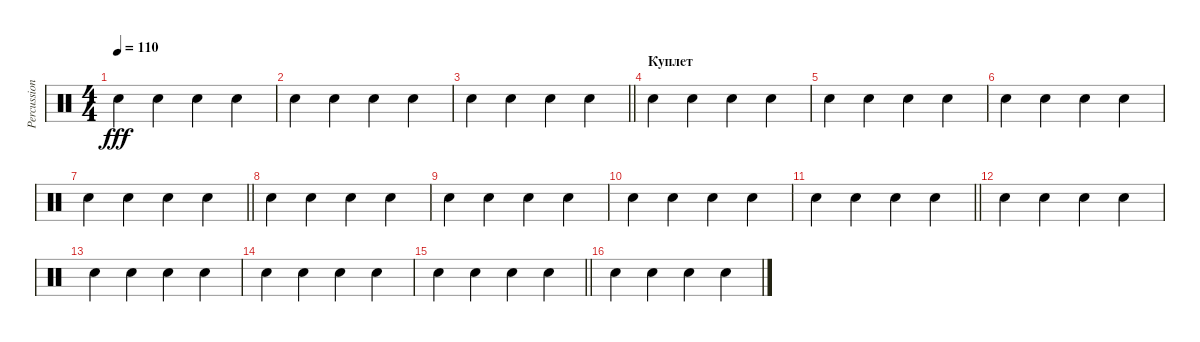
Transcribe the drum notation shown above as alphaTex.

\track ("Percussion" "Percussion") {mute instrument percussion}
\staff {score}
\articulation defaults
\ts (4 4)
\tempo 110
\clef neutral
\ks c "Snare (hit) 2".4{dy fff} "Snare (hit) 2".4 "Snare (hit) 2".4 "Snare (hit) 2".4
|
"Snare (hit) 2".4 "Snare (hit) 2".4 "Snare (hit) 2".4 "Snare (hit) 2".4 |
\barLineRight lightlight "Snare (hit) 2".4 "Snare (hit) 2".4 "Snare (hit) 2".4 "Snare (hit) 2".4
|
\section ("" "Куплет")
"Snare (hit) 2".4 "Snare (hit) 2".4 "Snare (hit) 2".4 "Snare (hit) 2".4 |
"Snare (hit) 2".4 "Snare (hit) 2".4 "Snare (hit) 2".4 "Snare (hit) 2".4 |
"Snare (hit) 2".4 "Snare (hit) 2".4 "Snare (hit) 2".4 "Snare (hit) 2".4 |
\barLineRight lightlight "Snare (hit) 2".4 "Snare (hit) 2".4 "Snare (hit) 2".4 "Snare (hit) 2".4
|
"Snare (hit) 2".4 "Snare (hit) 2".4 "Snare (hit) 2".4 "Snare (hit) 2".4 |
"Snare (hit) 2".4 "Snare (hit) 2".4 "Snare (hit) 2".4 "Snare (hit) 2".4 |
"Snare (hit) 2".4 "Snare (hit) 2".4 "Snare (hit) 2".4 "Snare (hit) 2".4 |
\barLineRight lightlight "Snare (hit) 2".4 "Snare (hit) 2".4 "Snare (hit) 2".4 "Snare (hit) 2".4
|
"Snare (hit) 2".4 "Snare (hit) 2".4 "Snare (hit) 2".4 "Snare (hit) 2".4 |
"Snare (hit) 2".4 "Snare (hit) 2".4 "Snare (hit) 2".4 "Snare (hit) 2".4 |
"Snare (hit) 2".4 "Snare (hit) 2".4 "Snare (hit) 2".4 "Snare (hit) 2".4 |
\barLineRight lightlight "Snare (hit) 2".4 "Snare (hit) 2".4 "Snare (hit) 2".4 "Snare (hit) 2".4
|
"Snare (hit) 2".4 "Snare (hit) 2".4 "Snare (hit) 2".4 "Snare (hit) 2".4
